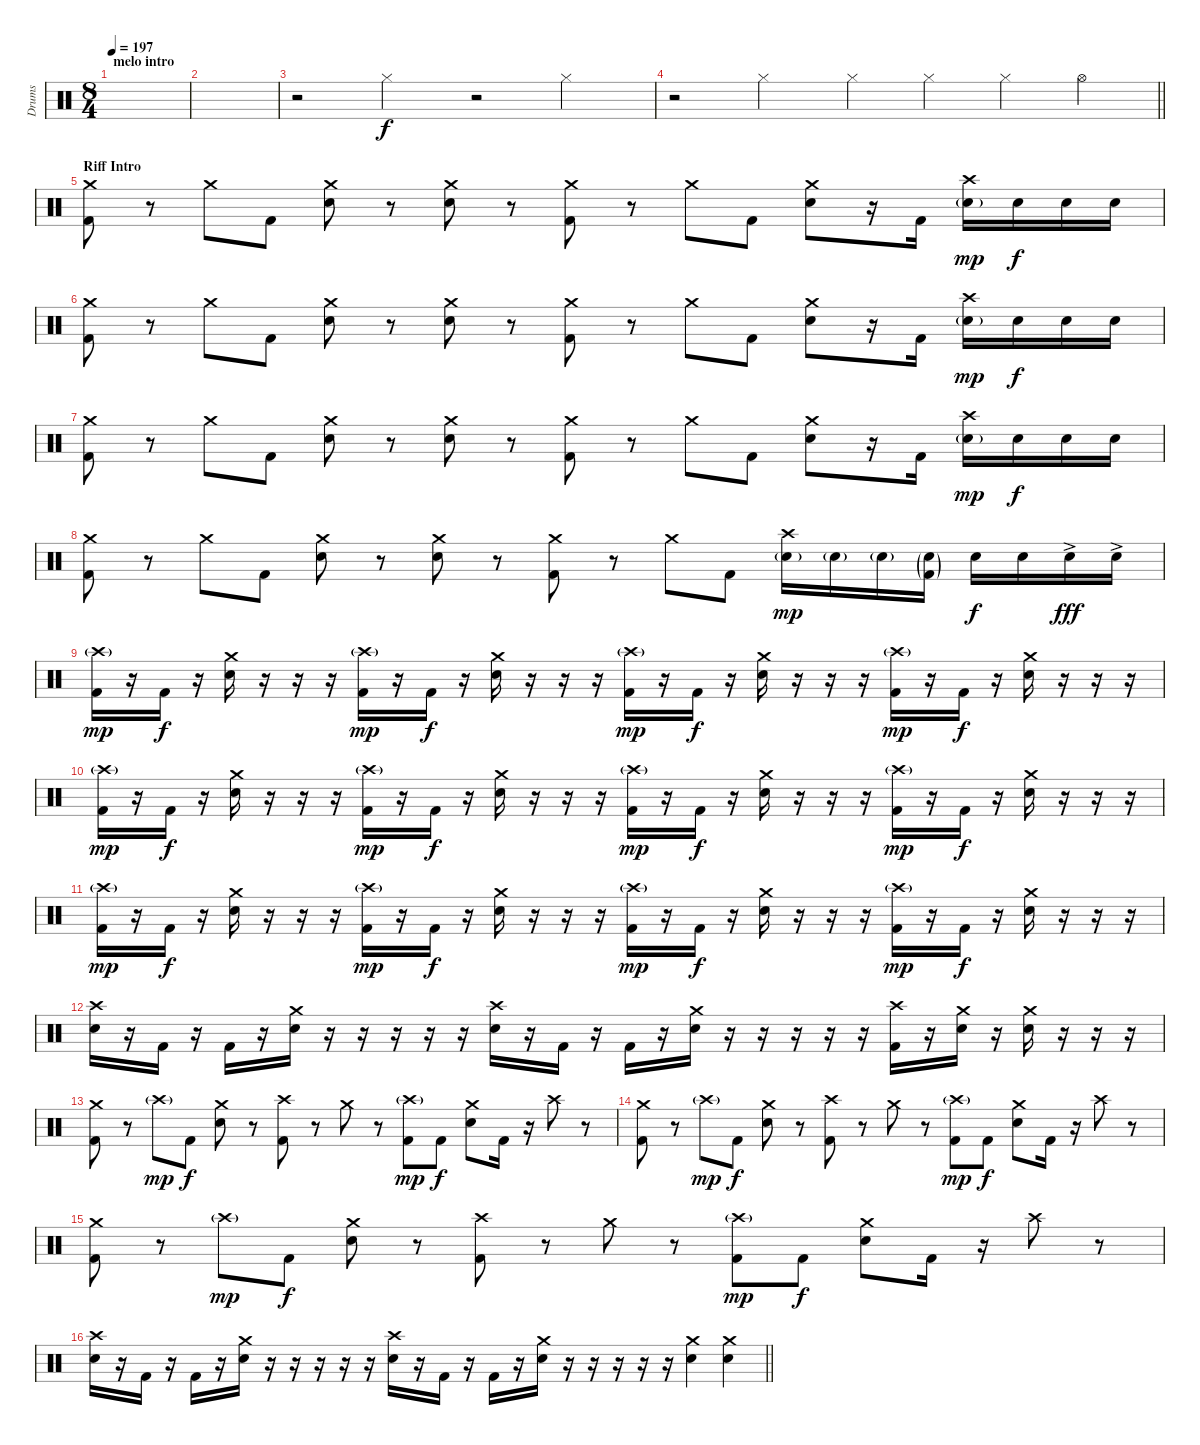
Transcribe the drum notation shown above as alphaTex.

\track ("Drums" "Drums") {instrument percussion}
\staff {score}
\articulation defaults
\ts (8 4)
\section ("" "melo intro")
\tempo 197
\clef neutral
\ks c
|
|
r.2 "Hi-Hat (closed)".2 r.2 "Hi-Hat (closed)".2 |
\barLineRight lightlight
r.2 "Hi-Hat (closed)".2 "Hi-Hat (closed)".4 "Hi-Hat (closed)".4 "Hi-Hat (closed)".4 "Hi-Hat (open)".4 |
\section ("" "Riff Intro")
("Crash medium (hit)" "Kick (hit) 2").8 r.8 "Crash medium (hit)".8 "Kick (hit) 2".8 ("Crash medium (hit)" "Electric Snare (hit)").8 r.8 ("Crash medium (hit)" "Electric Snare (hit)").8 r.8 ("Crash medium (hit)" "Kick (hit) 2").8 r.8 "Crash medium (hit)".8 "Kick (hit) 2".8 ("Crash medium (hit)" "Electric Snare (hit)").8 r.16 "Kick (hit) 2".16 ("Crash high (hit)" "Electric Snare (hit)"{g}).16{dy mp} "Electric Snare (hit)".16{dy f} "Electric Snare (hit)".16 "Electric Snare (hit)".16 |
("Crash medium (hit)" "Kick (hit) 2").8 r.8 "Crash medium (hit)".8 "Kick (hit) 2".8 ("Crash medium (hit)" "Electric Snare (hit)").8 r.8 ("Crash medium (hit)" "Electric Snare (hit)").8 r.8 ("Crash medium (hit)" "Kick (hit) 2").8 r.8 "Crash medium (hit)".8 "Kick (hit) 2".8 ("Crash medium (hit)" "Electric Snare (hit)").8 r.16 "Kick (hit) 2".16 ("Crash high (hit)" "Electric Snare (hit)"{g}).16{dy mp} "Electric Snare (hit)".16{dy f} "Electric Snare (hit)".16 "Electric Snare (hit)".16 |
("Crash medium (hit)" "Kick (hit) 2").8 r.8 "Crash medium (hit)".8 "Kick (hit) 2".8 ("Crash medium (hit)" "Electric Snare (hit)").8 r.8 ("Crash medium (hit)" "Electric Snare (hit)").8 r.8 ("Crash medium (hit)" "Kick (hit) 2").8 r.8 "Crash medium (hit)".8 "Kick (hit) 2".8 ("Crash medium (hit)" "Electric Snare (hit)").8 r.16 "Kick (hit) 2".16 ("Crash high (hit)" "Electric Snare (hit)"{g}).16{dy mp} "Electric Snare (hit)".16{dy f} "Electric Snare (hit)".16 "Electric Snare (hit)".16 |
("Crash medium (hit)" "Kick (hit) 2").8 r.8 "Crash medium (hit)".8 "Kick (hit) 2".8 ("Crash medium (hit)" "Electric Snare (hit)").8 r.8 ("Crash medium (hit)" "Electric Snare (hit)").8 r.8 ("Crash medium (hit)" "Kick (hit) 2").8 r.8 "Crash medium (hit)".8 "Kick (hit) 2".8 ("Crash high (hit)" "Electric Snare (hit)"{g}).16{dy mp} "Electric Snare (hit)"{g}.16 "Electric Snare (hit)"{g}.16 ("Electric Snare (hit)"{g} "Kick (hit) 2"{g}).16 "Electric Snare (hit)".16{dy f} "Electric Snare (hit)".16 "Electric Snare (hit)"{ac}.16{dy fff} "Electric Snare (hit)"{ac}.16 |
("Crash high (hit)"{g} "Kick (hit) 2").16{dy mp} r.16 "Kick (hit) 2".16{dy f} r.16 ("Crash medium (hit)" "Electric Snare (hit)").16 r.16 r.16 r.16 ("Crash high (hit)"{g} "Kick (hit) 2").16{dy mp} r.16 "Kick (hit) 2".16{dy f} r.16 ("Crash medium (hit)" "Electric Snare (hit)").16 r.16 r.16 r.16 ("Crash high (hit)"{g} "Kick (hit) 2").16{dy mp} r.16 "Kick (hit) 2".16{dy f} r.16 ("Crash medium (hit)" "Electric Snare (hit)").16 r.16 r.16 r.16 ("Crash high (hit)"{g} "Kick (hit) 2").16{dy mp} r.16 "Kick (hit) 2".16{dy f} r.16 ("Crash medium (hit)" "Electric Snare (hit)").16 r.16 r.16 r.16 |
("Crash high (hit)"{g} "Kick (hit) 2").16{dy mp} r.16 "Kick (hit) 2".16{dy f} r.16 ("Crash medium (hit)" "Electric Snare (hit)").16 r.16 r.16 r.16 ("Crash high (hit)"{g} "Kick (hit) 2").16{dy mp} r.16 "Kick (hit) 2".16{dy f} r.16 ("Crash medium (hit)" "Electric Snare (hit)").16 r.16 r.16 r.16 ("Crash high (hit)"{g} "Kick (hit) 2").16{dy mp} r.16 "Kick (hit) 2".16{dy f} r.16 ("Crash medium (hit)" "Electric Snare (hit)").16 r.16 r.16 r.16 ("Crash high (hit)"{g} "Kick (hit) 2").16{dy mp} r.16 "Kick (hit) 2".16{dy f} r.16 ("Crash medium (hit)" "Electric Snare (hit)").16 r.16 r.16 r.16 |
("Crash high (hit)"{g} "Kick (hit) 2").16{dy mp} r.16 "Kick (hit) 2".16{dy f} r.16 ("Crash medium (hit)" "Electric Snare (hit)").16 r.16 r.16 r.16 ("Crash high (hit)"{g} "Kick (hit) 2").16{dy mp} r.16 "Kick (hit) 2".16{dy f} r.16 ("Crash medium (hit)" "Electric Snare (hit)").16 r.16 r.16 r.16 ("Crash high (hit)"{g} "Kick (hit) 2").16{dy mp} r.16 "Kick (hit) 2".16{dy f} r.16 ("Crash medium (hit)" "Electric Snare (hit)").16 r.16 r.16 r.16 ("Crash high (hit)"{g} "Kick (hit) 2").16{dy mp} r.16 "Kick (hit) 2".16{dy f} r.16 ("Crash medium (hit)" "Electric Snare (hit)").16 r.16 r.16 r.16 |
("Crash high (hit)" "Electric Snare (hit)").16 r.16 "Kick (hit) 2".16 r.16 "Kick (hit) 2".16 r.16 ("Crash medium (hit)" "Electric Snare (hit)").16 r.16 r.16 r.16 r.16 r.16 ("Crash high (hit)" "Electric Snare (hit)").16 r.16 "Kick (hit) 2".16 r.16 "Kick (hit) 2".16 r.16 ("Crash medium (hit)" "Electric Snare (hit)").16 r.16 r.16 r.16 r.16 r.16 ("Crash high (hit)" "Kick (hit) 2").16 r.16 ("Crash medium (hit)" "Electric Snare (hit)").16 r.16 ("Crash medium (hit)" "Electric Snare (hit)").16 r.16 r.16 r.16 |
("Crash medium (hit)" "Kick (hit) 2").8 r.8 "Crash high (hit)"{g}.8{dy mp} "Kick (hit) 2".8{dy f} ("Crash medium (hit)" "Electric Snare (hit)").8 r.8 ("Crash high (hit)" "Kick (hit) 2").8 r.8 "Crash medium (hit)".8 r.8 ("Crash high (hit)"{g} "Kick (hit) 2").8{dy mp} "Kick (hit) 2".8{dy f} ("Crash medium (hit)" "Electric Snare (hit)").8 "Kick (hit) 2".16 r.16 "Crash high (hit)".8 r.8 |
("Crash medium (hit)" "Kick (hit) 2").8 r.8 "Crash high (hit)"{g}.8{dy mp} "Kick (hit) 2".8{dy f} ("Crash medium (hit)" "Electric Snare (hit)").8 r.8 ("Crash high (hit)" "Kick (hit) 2").8 r.8 "Crash medium (hit)".8 r.8 ("Crash high (hit)"{g} "Kick (hit) 2").8{dy mp} "Kick (hit) 2".8{dy f} ("Crash medium (hit)" "Electric Snare (hit)").8 "Kick (hit) 2".16 r.16 "Crash high (hit)".8 r.8 |
("Crash medium (hit)" "Kick (hit) 2").8 r.8 "Crash high (hit)"{g}.8{dy mp} "Kick (hit) 2".8{dy f} ("Crash medium (hit)" "Electric Snare (hit)").8 r.8 ("Crash high (hit)" "Kick (hit) 2").8 r.8 "Crash medium (hit)".8 r.8 ("Crash high (hit)"{g} "Kick (hit) 2").8{dy mp} "Kick (hit) 2".8{dy f} ("Crash medium (hit)" "Electric Snare (hit)").8 "Kick (hit) 2".16 r.16 "Crash high (hit)".8 r.8 |
\barLineRight lightlight
("Crash high (hit)" "Electric Snare (hit)").16 r.16 "Kick (hit) 2".16 r.16 "Kick (hit) 2".16 r.16 ("Crash medium (hit)" "Electric Snare (hit)").16 r.16 r.16 r.16 r.16 r.16 ("Crash high (hit)" "Electric Snare (hit)").16 r.16 "Kick (hit) 2".16 r.16 "Kick (hit) 2".16 r.16 ("Crash medium (hit)" "Electric Snare (hit)").16 r.16 r.16 r.16 r.16 r.16 ("Crash medium (hit)" "Electric Snare (hit)").4 ("Crash medium (hit)" "Electric Snare (hit)").4
